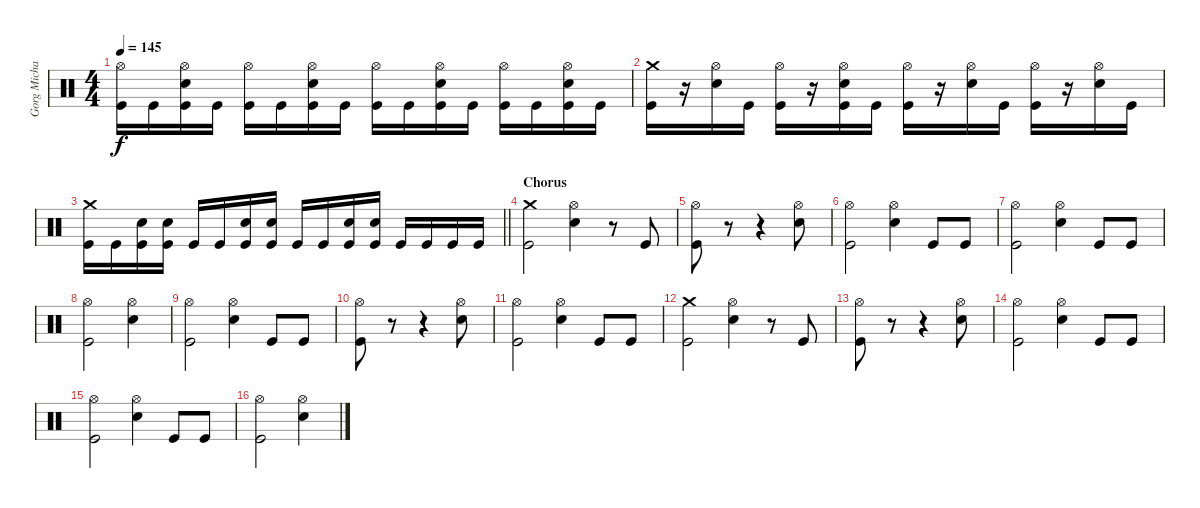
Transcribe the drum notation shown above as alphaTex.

\track ("Gorg Michael" "Gorg Micha") {instrument percussion}
\staff {score}
\articulation defaults
\ts (4 4)
\tempo 145
\clef neutral
\ks c
("Hi-Hat (open)" "Kick (hit)").16{dy f} "Kick (hit)".16 ("Hi-Hat (open)" "Snare (hit) 2" "Kick (hit)").16 "Kick (hit)".16 ("Hi-Hat (open)" "Kick (hit)").16 "Kick (hit)".16 ("Hi-Hat (open)" "Snare (hit) 2" "Kick (hit)").16 "Kick (hit)".16 ("Hi-Hat (open)" "Kick (hit)").16 "Kick (hit)".16 ("Hi-Hat (open)" "Snare (hit) 2" "Kick (hit)").16 "Kick (hit)".16 ("Hi-Hat (open)" "Kick (hit)").16 "Kick (hit)".16 ("Hi-Hat (open)" "Snare (hit) 2" "Kick (hit)").16 "Kick (hit)".16 |
("Crash medium (hit)" "Kick (hit)").16 r.16 ("Hi-Hat (open)" "Snare (hit) 2").16 "Kick (hit)".16 ("Hi-Hat (open)" "Kick (hit)").16 r.16 ("Hi-Hat (open)" "Snare (hit) 2" "Kick (hit)").16 "Kick (hit)".16 ("Hi-Hat (open)" "Kick (hit)").16 r.16 ("Hi-Hat (open)" "Snare (hit) 2").16 "Kick (hit)".16 ("Hi-Hat (open)" "Kick (hit)").16 r.16 ("Hi-Hat (open)" "Snare (hit) 2").16 "Kick (hit)".16 |
\barLineRight lightlight
("Crash medium (hit)" "Kick (hit)").16 "Kick (hit)".16 ("Snare (hit) 2" "Kick (hit)").16 ("Snare (hit) 2" "Kick (hit)").16 "Kick (hit)".16 "Kick (hit)".16 ("Snare (hit) 2" "Kick (hit)").16 ("Snare (hit) 2" "Kick (hit)").16 "Kick (hit)".16 "Kick (hit)".16 ("Snare (hit) 2" "Kick (hit)").16 ("Snare (hit) 2" "Kick (hit)").16 "Kick (hit)".16 "Kick (hit)".16 "Kick (hit)".16 "Kick (hit)".16 |
\section ("" "Chorus")
("Crash medium (hit)" "Kick (hit)").2 ("Hi-Hat (open)" "Snare (hit) 2").4 r.8 "Kick (hit)".8 |
("Hi-Hat (open)" "Kick (hit)").8 r.8 r.4 ("Hi-Hat (open)" "Snare (hit) 2").8 |
("Hi-Hat (open)" "Kick (hit)").2 ("Hi-Hat (open)" "Snare (hit) 2").4 "Kick (hit)".8 "Kick (hit)".8 |
("Hi-Hat (open)" "Kick (hit)").2 ("Hi-Hat (open)" "Snare (hit) 2").4 "Kick (hit)".8 "Kick (hit)".8 |
("Hi-Hat (open)" "Kick (hit)").2 ("Hi-Hat (open)" "Snare (hit) 2").4 |
("Hi-Hat (open)" "Kick (hit)").2 ("Hi-Hat (open)" "Snare (hit) 2").4 "Kick (hit)".8 "Kick (hit)".8 |
("Hi-Hat (open)" "Kick (hit)").8 r.8 r.4 ("Hi-Hat (open)" "Snare (hit) 2").8 |
("Hi-Hat (open)" "Kick (hit)").2 ("Hi-Hat (open)" "Snare (hit) 2").4 "Kick (hit)".8 "Kick (hit)".8 |
("Crash medium (hit)" "Kick (hit)").2 ("Hi-Hat (open)" "Snare (hit) 2").4 r.8 "Kick (hit)".8 |
("Hi-Hat (open)" "Kick (hit)").8 r.8 r.4 ("Hi-Hat (open)" "Snare (hit) 2").8 |
("Hi-Hat (open)" "Kick (hit)").2 ("Hi-Hat (open)" "Snare (hit) 2").4 "Kick (hit)".8 "Kick (hit)".8 |
("Hi-Hat (open)" "Kick (hit)").2 ("Hi-Hat (open)" "Snare (hit) 2").4 "Kick (hit)".8 "Kick (hit)".8 |
("Hi-Hat (open)" "Kick (hit)").2 ("Hi-Hat (open)" "Snare (hit) 2").4
